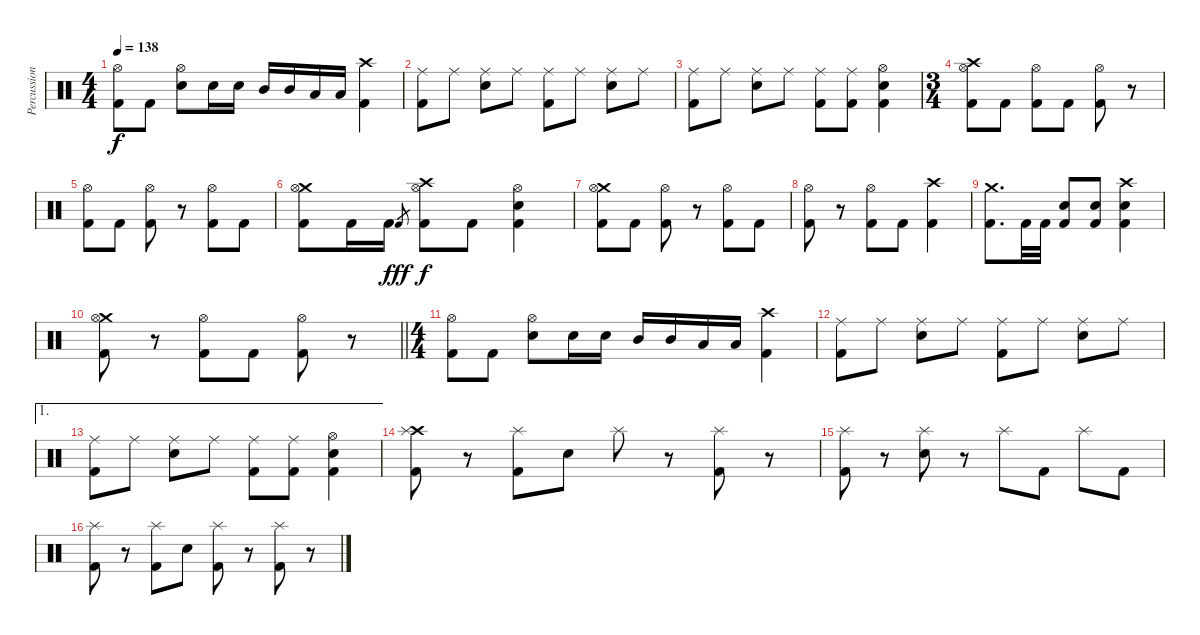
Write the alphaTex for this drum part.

\track ("Percussions" "Percussion") {instrument percussion}
\staff {score}
\articulation defaults
\ts (4 4)
\tempo 138
\clef neutral
\ks c
("Hi-Hat (open)" "Kick (hit) 2").8{dy f} "Kick (hit) 2".8 ("Hi-Hat (open)" "Snare (hit) 2").8 "Snare (hit) 2".16 "Snare (hit) 2".16 "Mid Tom (hit)".16 "Mid Tom (hit)".16 "Low Tom (hit)".16 "Low Tom (hit)".16 ("Crash high (hit)" "Kick (hit) 2").4 |
("Ride (middle)" "Kick (hit) 2").8 "Ride (middle)".8 ("Ride (middle)" "Snare (hit) 2").8 "Ride (middle)".8 ("Ride (middle)" "Kick (hit) 2").8 "Ride (middle)".8 ("Ride (middle)" "Snare (hit) 2").8 "Ride (middle)".8 |
("Ride (middle)" "Kick (hit) 2").8 "Ride (middle)".8 ("Ride (middle)" "Snare (hit) 2").8 "Ride (middle)".8 ("Ride (middle)" "Kick (hit) 2").8 ("Ride (middle)" "Kick (hit) 2").8 ("Hi-Hat (open)" "Snare (hit) 2" "Kick (hit) 2").4 |
\ts (3 4)
("Crash high (hit)" "Hi-Hat (open)" "Kick (hit) 2").8 "Kick (hit) 2".8 ("Hi-Hat (open)" "Kick (hit) 2").8 "Kick (hit) 2".8 ("Hi-Hat (open)" "Kick (hit) 2").8 r.8 |
("Hi-Hat (open)" "Kick (hit) 2").8 "Kick (hit) 2".8 ("Hi-Hat (open)" "Kick (hit) 2").8 r.8 ("Hi-Hat (open)" "Kick (hit) 2").8 "Kick (hit) 2".8 |
("Crash medium (hit)" "Hi-Hat (open)" "Kick (hit) 2").8 "Kick (hit) 2".16 "Kick (hit) 2".16 "Kick (hit) 2".8{gr dy fff} ("Crash high (hit)" "Hi-Hat (open)" "Kick (hit) 2").8{dy f} "Kick (hit) 2".8 ("Hi-Hat (open)" "Snare (hit) 2" "Kick (hit) 2").4 |
("Crash medium (hit)" "Hi-Hat (open)" "Kick (hit) 2").8 "Kick (hit) 2".8 ("Hi-Hat (open)" "Kick (hit) 2").8 r.8 ("Hi-Hat (open)" "Kick (hit) 2").8 "Kick (hit) 2".8 |
("Hi-Hat (open)" "Kick (hit) 2").8 r.8 ("Hi-Hat (open)" "Kick (hit) 2").8 "Kick (hit) 2".8 ("Crash high (hit)" "Kick (hit) 2").4 |
("Crash medium (hit)" "Kick (hit) 2").8{d} "Kick (hit) 2".32 "Kick (hit) 2".32 ("Snare (hit) 2" "Kick (hit) 2").8 ("Snare (hit) 2" "Kick (hit) 2").8 ("Crash high (hit)" "Snare (hit) 2" "Kick (hit) 2").4 |
\barLineRight lightlight
("Crash medium (hit)" "Hi-Hat (open)" "Kick (hit) 2").8 r.8 ("Hi-Hat (open)" "Kick (hit) 2").8 "Kick (hit) 2".8 ("Hi-Hat (open)" "Kick (hit) 2").8 r.8 |
\ts (4 4)
("Hi-Hat (open)" "Kick (hit) 2").8 "Kick (hit) 2".8 ("Hi-Hat (open)" "Snare (hit) 2").8 "Snare (hit) 2".16 "Snare (hit) 2".16 "Mid Tom (hit)".16 "Mid Tom (hit)".16 "Low Tom (hit)".16 "Low Tom (hit)".16 ("Crash high (hit)" "Kick (hit) 2").4 |
("Ride (middle)" "Kick (hit) 2").8 "Ride (middle)".8 ("Ride (middle)" "Snare (hit) 2").8 "Ride (middle)".8 ("Ride (middle)" "Kick (hit) 2").8 "Ride (middle)".8 ("Ride (middle)" "Snare (hit) 2").8 "Ride (middle)".8 |
\ae 1
("Ride (middle)" "Kick (hit) 2").8 "Ride (middle)".8 ("Ride (middle)" "Snare (hit) 2").8 "Ride (middle)".8 ("Ride (middle)" "Kick (hit) 2").8 ("Ride (middle)" "Kick (hit) 2").8 ("Hi-Hat (open)" "Snare (hit) 2" "Kick (hit) 2").4 |
("Crash high (hit)" "Splash (hit)" "Kick (hit) 2").8 r.8 ("Splash (hit)" "Kick (hit) 2").8 "Snare (hit) 2".8 "Splash (hit)".8 r.8 ("Splash (hit)" "Kick (hit) 2").8 r.8 |
("Splash (hit)" "Kick (hit) 2").8 r.8 ("Splash (hit)" "Snare (hit) 2").8 r.8 "Splash (hit)".8 "Kick (hit) 2".8 "Splash (hit)".8 "Kick (hit) 2".8 |
("Splash (hit)" "Kick (hit) 2").8 r.8 ("Splash (hit)" "Kick (hit) 2").8 "Snare (hit) 2".8 ("Splash (hit)" "Kick (hit) 2").8 r.8 ("Splash (hit)" "Kick (hit) 2").8 r.8
